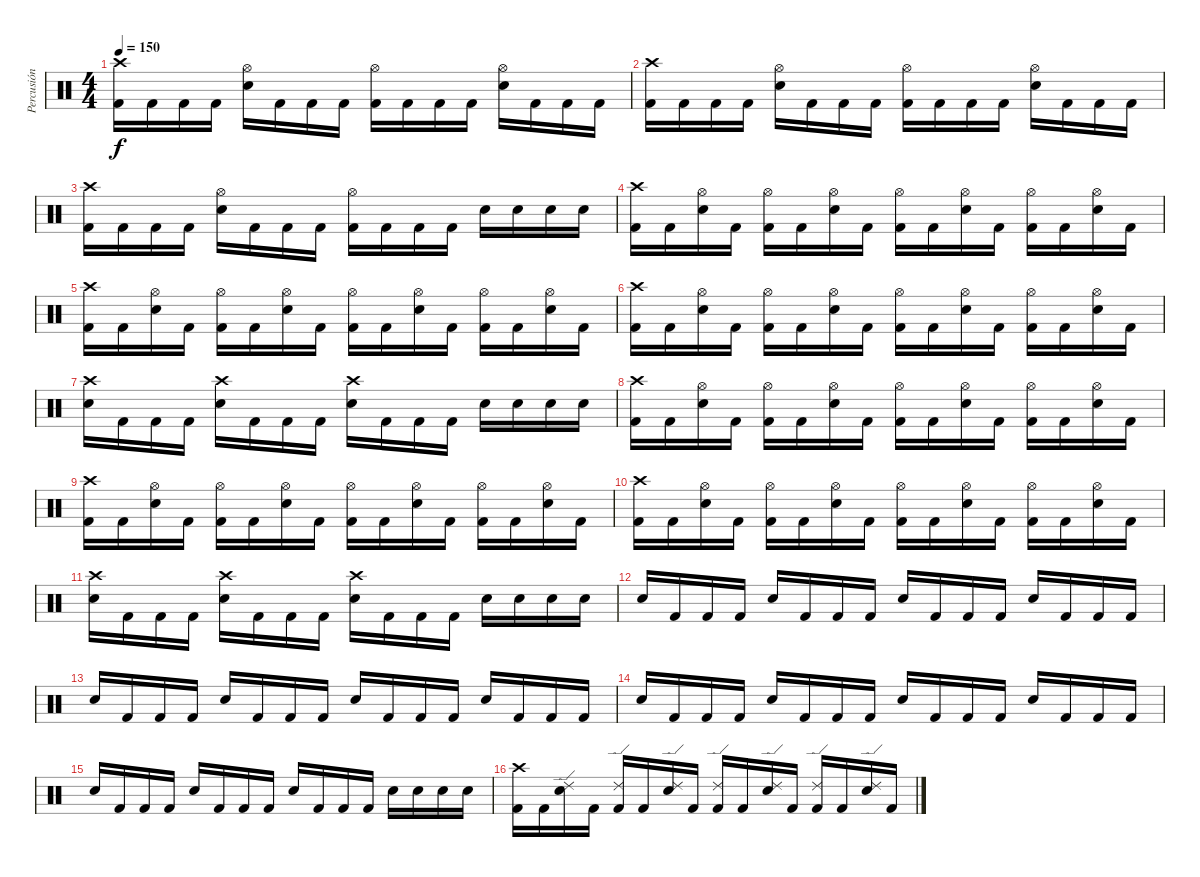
\track ("Percusión" "Percusión") {instrument percussion}
\staff {score}
\articulation defaults
\ts (4 4)
\tempo 150
\clef neutral
\ks c
("Crash high (hit)" "Kick (hit) 2").16{dy f} "Kick (hit) 2".16 "Kick (hit) 2".16 "Kick (hit) 2".16 ("Hi-Hat (open)" "Electric Snare (hit)").16 "Kick (hit) 2".16 "Kick (hit) 2".16 "Kick (hit) 2".16 ("Hi-Hat (open)" "Kick (hit) 2").16 "Kick (hit) 2".16 "Kick (hit) 2".16 "Kick (hit) 2".16 ("Hi-Hat (open)" "Electric Snare (hit)").16 "Kick (hit) 2".16 "Kick (hit) 2".16 "Kick (hit) 2".16 |
("Crash high (hit)" "Kick (hit) 2").16 "Kick (hit) 2".16 "Kick (hit) 2".16 "Kick (hit) 2".16 ("Hi-Hat (open)" "Electric Snare (hit)").16 "Kick (hit) 2".16 "Kick (hit) 2".16 "Kick (hit) 2".16 ("Hi-Hat (open)" "Kick (hit) 2").16 "Kick (hit) 2".16 "Kick (hit) 2".16 "Kick (hit) 2".16 ("Hi-Hat (open)" "Electric Snare (hit)").16 "Kick (hit) 2".16 "Kick (hit) 2".16 "Kick (hit) 2".16 |
("Crash high (hit)" "Kick (hit) 2").16 "Kick (hit) 2".16 "Kick (hit) 2".16 "Kick (hit) 2".16 ("Hi-Hat (open)" "Electric Snare (hit)").16 "Kick (hit) 2".16 "Kick (hit) 2".16 "Kick (hit) 2".16 ("Hi-Hat (open)" "Kick (hit) 2").16 "Kick (hit) 2".16 "Kick (hit) 2".16 "Kick (hit) 2".16 "Electric Snare (hit)".16 "Electric Snare (hit)".16 "Electric Snare (hit)".16 "Electric Snare (hit)".16 |
("Crash high (hit)" "Kick (hit) 2").16 "Kick (hit) 2".16 ("Hi-Hat (open)" "Electric Snare (hit)").16 "Kick (hit) 2".16 ("Hi-Hat (open)" "Kick (hit) 2").16 "Kick (hit) 2".16 ("Hi-Hat (open)" "Electric Snare (hit)").16 "Kick (hit) 2".16 ("Hi-Hat (open)" "Kick (hit) 2").16 "Kick (hit) 2".16 ("Hi-Hat (open)" "Electric Snare (hit)").16 "Kick (hit) 2".16 ("Hi-Hat (open)" "Kick (hit) 2").16 "Kick (hit) 2".16 ("Hi-Hat (open)" "Electric Snare (hit)").16 "Kick (hit) 2".16 |
("Crash high (hit)" "Kick (hit) 2").16 "Kick (hit) 2".16 ("Hi-Hat (open)" "Electric Snare (hit)").16 "Kick (hit) 2".16 ("Hi-Hat (open)" "Kick (hit) 2").16 "Kick (hit) 2".16 ("Hi-Hat (open)" "Electric Snare (hit)").16 "Kick (hit) 2".16 ("Hi-Hat (open)" "Kick (hit) 2").16 "Kick (hit) 2".16 ("Hi-Hat (open)" "Electric Snare (hit)").16 "Kick (hit) 2".16 ("Hi-Hat (open)" "Kick (hit) 2").16 "Kick (hit) 2".16 ("Hi-Hat (open)" "Electric Snare (hit)").16 "Kick (hit) 2".16 |
("Crash high (hit)" "Kick (hit) 2").16 "Kick (hit) 2".16 ("Hi-Hat (open)" "Electric Snare (hit)").16 "Kick (hit) 2".16 ("Hi-Hat (open)" "Kick (hit) 2").16 "Kick (hit) 2".16 ("Hi-Hat (open)" "Electric Snare (hit)").16 "Kick (hit) 2".16 ("Hi-Hat (open)" "Kick (hit) 2").16 "Kick (hit) 2".16 ("Hi-Hat (open)" "Electric Snare (hit)").16 "Kick (hit) 2".16 ("Hi-Hat (open)" "Kick (hit) 2").16 "Kick (hit) 2".16 ("Hi-Hat (open)" "Electric Snare (hit)").16 "Kick (hit) 2".16 |
("Crash high (hit)" "Electric Snare (hit)").16 "Kick (hit) 2".16 "Kick (hit) 2".16 "Kick (hit) 2".16 ("Crash high (hit)" "Electric Snare (hit)").16 "Kick (hit) 2".16 "Kick (hit) 2".16 "Kick (hit) 2".16 ("Crash high (hit)" "Electric Snare (hit)").16 "Kick (hit) 2".16 "Kick (hit) 2".16 "Kick (hit) 2".16 "Electric Snare (hit)".16 "Electric Snare (hit)".16 "Electric Snare (hit)".16 "Electric Snare (hit)".16 |
("Crash high (hit)" "Kick (hit) 2").16 "Kick (hit) 2".16 ("Hi-Hat (open)" "Electric Snare (hit)").16 "Kick (hit) 2".16 ("Hi-Hat (open)" "Kick (hit) 2").16 "Kick (hit) 2".16 ("Hi-Hat (open)" "Electric Snare (hit)").16 "Kick (hit) 2".16 ("Hi-Hat (open)" "Kick (hit) 2").16 "Kick (hit) 2".16 ("Hi-Hat (open)" "Electric Snare (hit)").16 "Kick (hit) 2".16 ("Hi-Hat (open)" "Kick (hit) 2").16 "Kick (hit) 2".16 ("Hi-Hat (open)" "Electric Snare (hit)").16 "Kick (hit) 2".16 |
("Crash high (hit)" "Kick (hit) 2").16 "Kick (hit) 2".16 ("Hi-Hat (open)" "Electric Snare (hit)").16 "Kick (hit) 2".16 ("Hi-Hat (open)" "Kick (hit) 2").16 "Kick (hit) 2".16 ("Hi-Hat (open)" "Electric Snare (hit)").16 "Kick (hit) 2".16 ("Hi-Hat (open)" "Kick (hit) 2").16 "Kick (hit) 2".16 ("Hi-Hat (open)" "Electric Snare (hit)").16 "Kick (hit) 2".16 ("Hi-Hat (open)" "Kick (hit) 2").16 "Kick (hit) 2".16 ("Hi-Hat (open)" "Electric Snare (hit)").16 "Kick (hit) 2".16 |
("Crash high (hit)" "Kick (hit) 2").16 "Kick (hit) 2".16 ("Hi-Hat (open)" "Electric Snare (hit)").16 "Kick (hit) 2".16 ("Hi-Hat (open)" "Kick (hit) 2").16 "Kick (hit) 2".16 ("Hi-Hat (open)" "Electric Snare (hit)").16 "Kick (hit) 2".16 ("Hi-Hat (open)" "Kick (hit) 2").16 "Kick (hit) 2".16 ("Hi-Hat (open)" "Electric Snare (hit)").16 "Kick (hit) 2".16 ("Hi-Hat (open)" "Kick (hit) 2").16 "Kick (hit) 2".16 ("Hi-Hat (open)" "Electric Snare (hit)").16 "Kick (hit) 2".16 |
("Crash high (hit)" "Electric Snare (hit)").16 "Kick (hit) 2".16 "Kick (hit) 2".16 "Kick (hit) 2".16 ("Crash high (hit)" "Electric Snare (hit)").16 "Kick (hit) 2".16 "Kick (hit) 2".16 "Kick (hit) 2".16 ("Crash high (hit)" "Electric Snare (hit)").16 "Kick (hit) 2".16 "Kick (hit) 2".16 "Kick (hit) 2".16 "Electric Snare (hit)".16 "Electric Snare (hit)".16 "Electric Snare (hit)".16 "Electric Snare (hit)".16 |
"Electric Snare (hit)".16 "Kick (hit) 2".16 "Kick (hit) 2".16 "Kick (hit) 2".16 "Electric Snare (hit)".16 "Kick (hit) 2".16 "Kick (hit) 2".16 "Kick (hit) 2".16 "Electric Snare (hit)".16 "Kick (hit) 2".16 "Kick (hit) 2".16 "Kick (hit) 2".16 "Electric Snare (hit)".16 "Kick (hit) 2".16 "Kick (hit) 2".16 "Kick (hit) 2".16 |
"Electric Snare (hit)".16 "Kick (hit) 2".16 "Kick (hit) 2".16 "Kick (hit) 2".16 "Electric Snare (hit)".16 "Kick (hit) 2".16 "Kick (hit) 2".16 "Kick (hit) 2".16 "Electric Snare (hit)".16 "Kick (hit) 2".16 "Kick (hit) 2".16 "Kick (hit) 2".16 "Electric Snare (hit)".16 "Kick (hit) 2".16 "Kick (hit) 2".16 "Kick (hit) 2".16 |
"Electric Snare (hit)".16 "Kick (hit) 2".16 "Kick (hit) 2".16 "Kick (hit) 2".16 "Electric Snare (hit)".16 "Kick (hit) 2".16 "Kick (hit) 2".16 "Kick (hit) 2".16 "Electric Snare (hit)".16 "Kick (hit) 2".16 "Kick (hit) 2".16 "Kick (hit) 2".16 "Electric Snare (hit)".16 "Kick (hit) 2".16 "Kick (hit) 2".16 "Kick (hit) 2".16 |
"Electric Snare (hit)".16 "Kick (hit) 2".16 "Kick (hit) 2".16 "Kick (hit) 2".16 "Electric Snare (hit)".16 "Kick (hit) 2".16 "Kick (hit) 2".16 "Kick (hit) 2".16 "Electric Snare (hit)".16 "Kick (hit) 2".16 "Kick (hit) 2".16 "Kick (hit) 2".16 "Electric Snare (hit)".16 "Electric Snare (hit)".16 "Electric Snare (hit)".16 "Electric Snare (hit)".16 |
("Crash high (hit)" "Kick (hit) 2").16 "Kick (hit) 2".16 ("Ride (edge) 2" "Electric Snare (hit)").16 "Kick (hit) 2".16 ("Ride (edge) 2" "Kick (hit) 2").16 "Kick (hit) 2".16 ("Ride (edge) 2" "Electric Snare (hit)").16 "Kick (hit) 2".16 ("Ride (edge) 2" "Kick (hit) 2").16 "Kick (hit) 2".16 ("Ride (edge) 2" "Electric Snare (hit)").16 "Kick (hit) 2".16 ("Ride (edge) 2" "Kick (hit) 2").16 "Kick (hit) 2".16 ("Ride (edge) 2" "Electric Snare (hit)").16 "Kick (hit) 2".16
